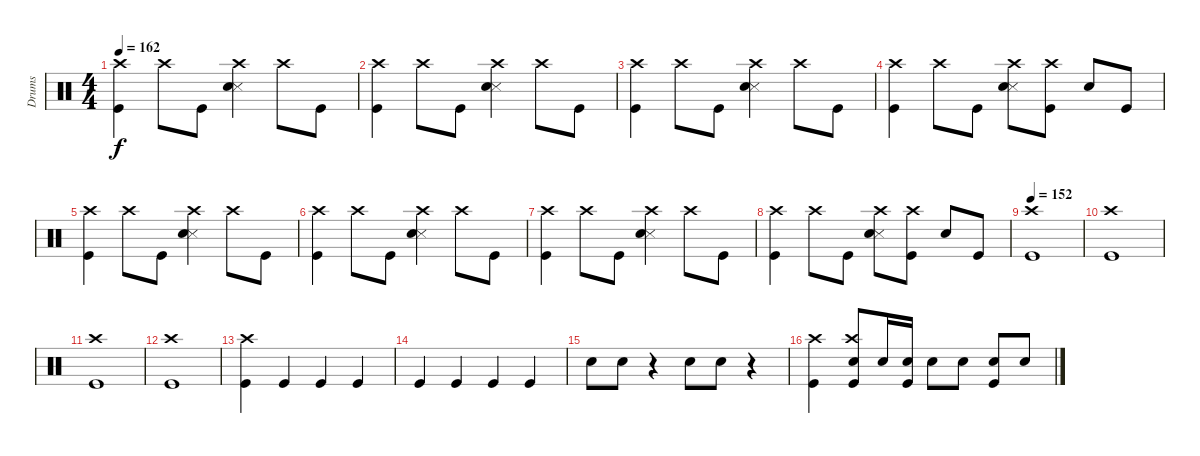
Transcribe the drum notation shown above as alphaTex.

\track ("Drums" "Drums") {instrument percussion}
\staff {score}
\articulation defaults
\ts (4 4)
\tempo 162
\clef neutral
\ks c
("Kick (hit)" "Crash high (hit)").4{dy f} "Crash high (hit)".8 "Kick (hit)".8 ("Metronome (hit)" "Snare (hit) 2" "Crash high (hit)").4 "Crash high (hit)".8 "Kick (hit)".8 |
("Kick (hit)" "Crash high (hit)").4 "Crash high (hit)".8 "Kick (hit)".8 ("Metronome (hit)" "Snare (hit) 2" "Crash high (hit)").4 "Crash high (hit)".8 "Kick (hit)".8 |
("Kick (hit)" "Crash high (hit)").4 "Crash high (hit)".8 "Kick (hit)".8 ("Metronome (hit)" "Snare (hit) 2" "Crash high (hit)").4 "Crash high (hit)".8 "Kick (hit)".8 |
("Kick (hit)" "Crash high (hit)").4 "Crash high (hit)".8 "Kick (hit)".8 ("Metronome (hit)" "Snare (hit) 2" "Crash high (hit)").8 ("Kick (hit)" "Crash high (hit)").8 "Snare (hit) 2".8 "Kick (hit)".8 |
("Kick (hit)" "Crash high (hit)").4 "Crash high (hit)".8 "Kick (hit)".8 ("Metronome (hit)" "Snare (hit) 2" "Crash high (hit)").4 "Crash high (hit)".8 "Kick (hit)".8 |
("Kick (hit)" "Crash high (hit)").4 "Crash high (hit)".8 "Kick (hit)".8 ("Metronome (hit)" "Snare (hit) 2" "Crash high (hit)").4 "Crash high (hit)".8 "Kick (hit)".8 |
("Kick (hit)" "Crash high (hit)").4 "Crash high (hit)".8 "Kick (hit)".8 ("Metronome (hit)" "Snare (hit) 2" "Crash high (hit)").4 "Crash high (hit)".8 "Kick (hit)".8 |
("Kick (hit)" "Crash high (hit)").4 "Crash high (hit)".8 "Kick (hit)".8 ("Metronome (hit)" "Snare (hit) 2" "Crash high (hit)").8 ("Kick (hit)" "Crash high (hit)").8 "Snare (hit) 2".8 "Kick (hit)".8 |
\tempo 152
("Kick (hit)" "Crash high (hit)").1 |
("Kick (hit)" "Crash high (hit)").1 |
("Kick (hit)" "Crash high (hit)").1 |
("Kick (hit)" "Crash high (hit)").1 |
("Kick (hit)" "Crash high (hit)").4 "Kick (hit)".4 "Kick (hit)".4 "Kick (hit)".4 |
"Kick (hit)".4 "Kick (hit)".4 "Kick (hit)".4 "Kick (hit)".4 |
"Snare (hit) 2".8 "Snare (hit) 2".8 r.4 "Snare (hit) 2".8 "Snare (hit) 2".8 r.4 |
("Kick (hit)" "Crash high (hit)").4 ("Kick (hit)" "Snare (hit) 2" "Crash high (hit)").8 "Snare (hit) 2".16 ("Kick (hit)" "Snare (hit) 2").16 "Snare (hit) 2".8 "Snare (hit) 2".8 ("Kick (hit)" "Snare (hit) 2").8 "Snare (hit) 2".8
